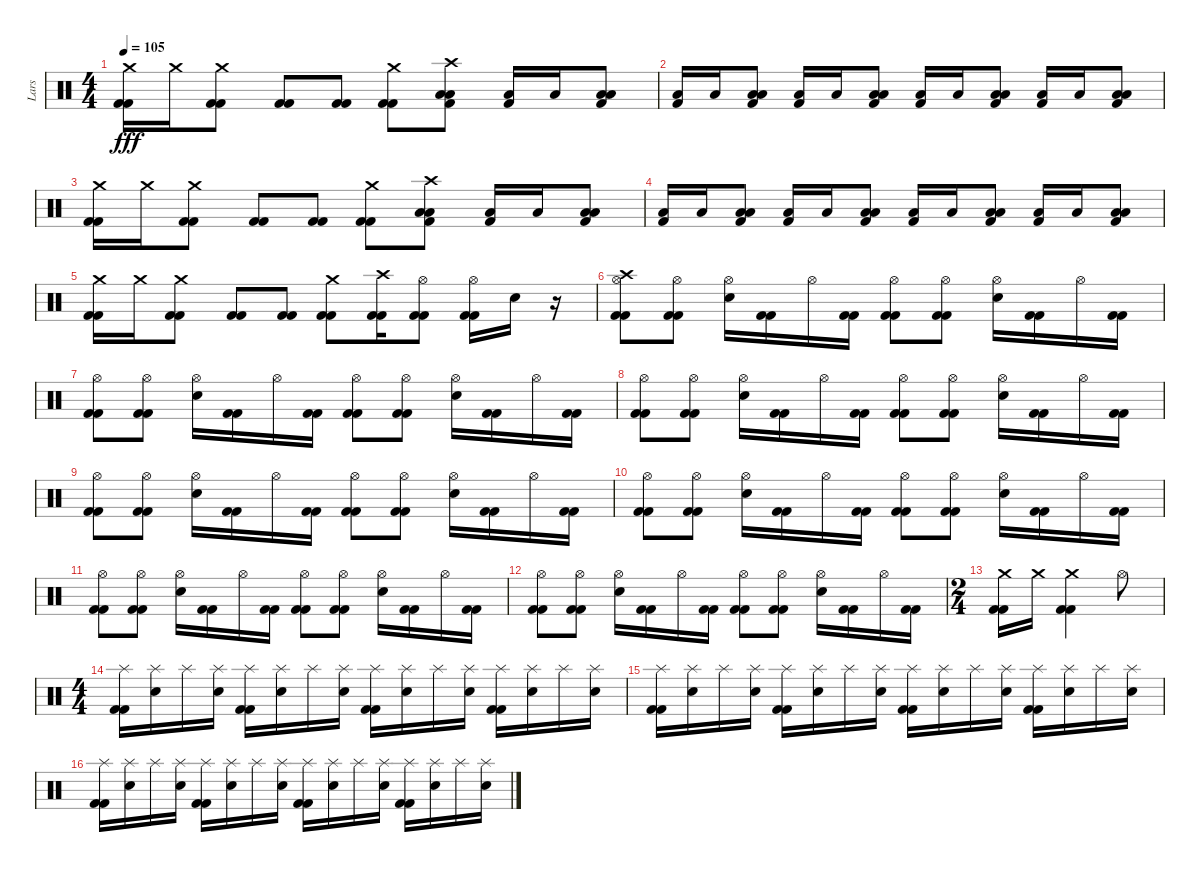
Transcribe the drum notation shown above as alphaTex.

\track ("Lars" "Lars") {instrument percussion}
\staff {score}
\articulation defaults
\ts (4 4)
\tempo 105
\clef neutral
\ks c
("Crash medium (hit)" "Kick (hit) 2" "Kick (hit) 2").16{dy fff} "Crash medium (hit)".16 ("Crash medium (hit)" "Kick (hit) 2" "Kick (hit) 2").8 ("Kick (hit) 2" "Kick (hit) 2").8 ("Kick (hit) 2" "Kick (hit) 2").8 ("Crash medium (hit)" "Kick (hit) 2" "Kick (hit) 2").8 ("Crash high (hit)" "Low Tom (hit)" "Low Floor Tom (hit)" "Kick (hit) 2").8 ("Low Floor Tom (hit)" "Kick (hit) 2").16 "Low Floor Tom (hit)".16 ("Low Tom (hit)" "Low Floor Tom (hit)" "Kick (hit) 2").8 |
("Low Floor Tom (hit)" "Kick (hit) 2").16 "Low Floor Tom (hit)".16 ("Low Tom (hit)" "Low Floor Tom (hit)" "Kick (hit) 2").8 ("Low Floor Tom (hit)" "Kick (hit) 2").16 "Low Floor Tom (hit)".16 ("Low Tom (hit)" "Low Floor Tom (hit)" "Kick (hit) 2").8 ("Low Floor Tom (hit)" "Kick (hit) 2").16 "Low Floor Tom (hit)".16 ("Low Tom (hit)" "Low Floor Tom (hit)" "Kick (hit) 2").8 ("Low Floor Tom (hit)" "Kick (hit) 2").16 "Low Floor Tom (hit)".16 ("Low Tom (hit)" "Low Floor Tom (hit)" "Kick (hit) 2").8 |
("Crash medium (hit)" "Kick (hit) 2" "Kick (hit) 2").16 "Crash medium (hit)".16 ("Crash medium (hit)" "Kick (hit) 2" "Kick (hit) 2").8 ("Kick (hit) 2" "Kick (hit) 2").8 ("Kick (hit) 2" "Kick (hit) 2").8 ("Crash medium (hit)" "Kick (hit) 2" "Kick (hit) 2").8 ("Crash high (hit)" "Low Tom (hit)" "Low Floor Tom (hit)" "Kick (hit) 2").8 ("Low Floor Tom (hit)" "Kick (hit) 2").16 "Low Floor Tom (hit)".16 ("Low Tom (hit)" "Low Floor Tom (hit)" "Kick (hit) 2").8 |
("Low Floor Tom (hit)" "Kick (hit) 2").16 "Low Floor Tom (hit)".16 ("Low Tom (hit)" "Low Floor Tom (hit)" "Kick (hit) 2").8 ("Low Floor Tom (hit)" "Kick (hit) 2").16 "Low Floor Tom (hit)".16 ("Low Tom (hit)" "Low Floor Tom (hit)" "Kick (hit) 2").8 ("Low Floor Tom (hit)" "Kick (hit) 2").16 "Low Floor Tom (hit)".16 ("Low Tom (hit)" "Low Floor Tom (hit)" "Kick (hit) 2").8 ("Low Floor Tom (hit)" "Kick (hit) 2").16 "Low Floor Tom (hit)".16 ("Low Tom (hit)" "Low Floor Tom (hit)" "Kick (hit) 2").8 |
("Crash medium (hit)" "Kick (hit) 2" "Kick (hit) 2").16 "Crash medium (hit)".16 ("Crash medium (hit)" "Kick (hit) 2" "Kick (hit) 2").8 ("Kick (hit) 2" "Kick (hit) 2").8 ("Kick (hit) 2" "Kick (hit) 2").8 ("Crash medium (hit)" "Kick (hit) 2" "Kick (hit) 2").8 ("Crash high (hit)" "Kick (hit) 2" "Kick (hit) 2").16 ("Hi-Hat (open)" "Kick (hit) 2" "Kick (hit) 2").8 ("Hi-Hat (open)" "Kick (hit) 2" "Kick (hit) 2").16 "Electric Snare (hit)".16 r.16 |
("Crash high (hit)" "Hi-Hat (open)" "Kick (hit) 2" "Kick (hit) 2").8 ("Hi-Hat (open)" "Kick (hit) 2" "Kick (hit) 2").8 ("Hi-Hat (open)" "Electric Snare (hit)").16 ("Kick (hit) 2" "Kick (hit) 2").16 "Hi-Hat (open)".16 ("Kick (hit) 2" "Kick (hit) 2").16 ("Hi-Hat (open)" "Kick (hit) 2" "Kick (hit) 2").8 ("Hi-Hat (open)" "Kick (hit) 2" "Kick (hit) 2").8 ("Hi-Hat (open)" "Electric Snare (hit)").16 ("Kick (hit) 2" "Kick (hit) 2").16 "Hi-Hat (open)".16 ("Kick (hit) 2" "Kick (hit) 2").16 |
("Hi-Hat (open)" "Kick (hit) 2" "Kick (hit) 2").8 ("Hi-Hat (open)" "Kick (hit) 2" "Kick (hit) 2").8 ("Hi-Hat (open)" "Electric Snare (hit)").16 ("Kick (hit) 2" "Kick (hit) 2").16 "Hi-Hat (open)".16 ("Kick (hit) 2" "Kick (hit) 2").16 ("Hi-Hat (open)" "Kick (hit) 2" "Kick (hit) 2").8 ("Hi-Hat (open)" "Kick (hit) 2" "Kick (hit) 2").8 ("Hi-Hat (open)" "Electric Snare (hit)").16 ("Kick (hit) 2" "Kick (hit) 2").16 "Hi-Hat (open)".16 ("Kick (hit) 2" "Kick (hit) 2").16 |
("Hi-Hat (open)" "Kick (hit) 2" "Kick (hit) 2").8 ("Hi-Hat (open)" "Kick (hit) 2" "Kick (hit) 2").8 ("Hi-Hat (open)" "Electric Snare (hit)").16 ("Kick (hit) 2" "Kick (hit) 2").16 "Hi-Hat (open)".16 ("Kick (hit) 2" "Kick (hit) 2").16 ("Hi-Hat (open)" "Kick (hit) 2" "Kick (hit) 2").8 ("Hi-Hat (open)" "Kick (hit) 2" "Kick (hit) 2").8 ("Hi-Hat (open)" "Electric Snare (hit)").16 ("Kick (hit) 2" "Kick (hit) 2").16 "Hi-Hat (open)".16 ("Kick (hit) 2" "Kick (hit) 2").16 |
("Hi-Hat (open)" "Kick (hit) 2" "Kick (hit) 2").8 ("Hi-Hat (open)" "Kick (hit) 2" "Kick (hit) 2").8 ("Hi-Hat (open)" "Electric Snare (hit)").16 ("Kick (hit) 2" "Kick (hit) 2").16 "Hi-Hat (open)".16 ("Kick (hit) 2" "Kick (hit) 2").16 ("Hi-Hat (open)" "Kick (hit) 2" "Kick (hit) 2").8 ("Hi-Hat (open)" "Kick (hit) 2" "Kick (hit) 2").8 ("Hi-Hat (open)" "Electric Snare (hit)").16 ("Kick (hit) 2" "Kick (hit) 2").16 "Hi-Hat (open)".16 ("Kick (hit) 2" "Kick (hit) 2").16 |
("Hi-Hat (open)" "Kick (hit) 2" "Kick (hit) 2").8 ("Hi-Hat (open)" "Kick (hit) 2" "Kick (hit) 2").8 ("Hi-Hat (open)" "Electric Snare (hit)").16 ("Kick (hit) 2" "Kick (hit) 2").16 "Hi-Hat (open)".16 ("Kick (hit) 2" "Kick (hit) 2").16 ("Hi-Hat (open)" "Kick (hit) 2" "Kick (hit) 2").8 ("Hi-Hat (open)" "Kick (hit) 2" "Kick (hit) 2").8 ("Hi-Hat (open)" "Electric Snare (hit)").16 ("Kick (hit) 2" "Kick (hit) 2").16 "Hi-Hat (open)".16 ("Kick (hit) 2" "Kick (hit) 2").16 |
("Hi-Hat (open)" "Kick (hit) 2" "Kick (hit) 2").8 ("Hi-Hat (open)" "Kick (hit) 2" "Kick (hit) 2").8 ("Hi-Hat (open)" "Electric Snare (hit)").16 ("Kick (hit) 2" "Kick (hit) 2").16 "Hi-Hat (open)".16 ("Kick (hit) 2" "Kick (hit) 2").16 ("Hi-Hat (open)" "Kick (hit) 2" "Kick (hit) 2").8 ("Hi-Hat (open)" "Kick (hit) 2" "Kick (hit) 2").8 ("Hi-Hat (open)" "Electric Snare (hit)").16 ("Kick (hit) 2" "Kick (hit) 2").16 "Hi-Hat (open)".16 ("Kick (hit) 2" "Kick (hit) 2").16 |
("Hi-Hat (open)" "Kick (hit) 2" "Kick (hit) 2").8 ("Hi-Hat (open)" "Kick (hit) 2" "Kick (hit) 2").8 ("Hi-Hat (open)" "Electric Snare (hit)").16 ("Kick (hit) 2" "Kick (hit) 2").16 "Hi-Hat (open)".16 ("Kick (hit) 2" "Kick (hit) 2").16 ("Hi-Hat (open)" "Kick (hit) 2" "Kick (hit) 2").8 ("Hi-Hat (open)" "Kick (hit) 2" "Kick (hit) 2").8 ("Hi-Hat (open)" "Electric Snare (hit)").16 ("Kick (hit) 2" "Kick (hit) 2").16 "Hi-Hat (open)".16 ("Kick (hit) 2" "Kick (hit) 2").16 |
\ts (2 4)
("Crash medium (hit)" "Kick (hit) 2" "Kick (hit) 2").16 "Crash medium (hit)".16 ("Crash medium (hit)" "Kick (hit) 2" "Kick (hit) 2").4 "Hi-Hat (open)".8 |
\ts (4 4)
("Splash (hit)" "Kick (hit) 2" "Kick (hit) 2").16 ("Splash (hit)" "Electric Snare (hit)").16 "Splash (hit)".16 ("Splash (hit)" "Electric Snare (hit)").16 ("Splash (hit)" "Kick (hit) 2" "Kick (hit) 2").16 ("Splash (hit)" "Electric Snare (hit)").16 "Splash (hit)".16 ("Splash (hit)" "Electric Snare (hit)").16 ("Splash (hit)" "Kick (hit) 2" "Kick (hit) 2").16 ("Splash (hit)" "Electric Snare (hit)").16 "Splash (hit)".16 ("Splash (hit)" "Electric Snare (hit)").16 ("Splash (hit)" "Kick (hit) 2" "Kick (hit) 2").16 ("Splash (hit)" "Electric Snare (hit)").16 "Splash (hit)".16 ("Splash (hit)" "Electric Snare (hit)").16 |
("Splash (hit)" "Kick (hit) 2" "Kick (hit) 2").16 ("Splash (hit)" "Electric Snare (hit)").16 "Splash (hit)".16 ("Splash (hit)" "Electric Snare (hit)").16 ("Splash (hit)" "Kick (hit) 2" "Kick (hit) 2").16 ("Splash (hit)" "Electric Snare (hit)").16 "Splash (hit)".16 ("Splash (hit)" "Electric Snare (hit)").16 ("Splash (hit)" "Kick (hit) 2" "Kick (hit) 2").16 ("Splash (hit)" "Electric Snare (hit)").16 "Splash (hit)".16 ("Splash (hit)" "Electric Snare (hit)").16 ("Splash (hit)" "Kick (hit) 2" "Kick (hit) 2").16 ("Splash (hit)" "Electric Snare (hit)").16 "Splash (hit)".16 ("Splash (hit)" "Electric Snare (hit)").16 |
("Splash (hit)" "Kick (hit) 2" "Kick (hit) 2").16 ("Splash (hit)" "Electric Snare (hit)").16 "Splash (hit)".16 ("Splash (hit)" "Electric Snare (hit)").16 ("Splash (hit)" "Kick (hit) 2" "Kick (hit) 2").16 ("Splash (hit)" "Electric Snare (hit)").16 "Splash (hit)".16 ("Splash (hit)" "Electric Snare (hit)").16 ("Splash (hit)" "Kick (hit) 2" "Kick (hit) 2").16 ("Splash (hit)" "Electric Snare (hit)").16 "Splash (hit)".16 ("Splash (hit)" "Electric Snare (hit)").16 ("Splash (hit)" "Kick (hit) 2" "Kick (hit) 2").16 ("Splash (hit)" "Electric Snare (hit)").16 "Splash (hit)".16 ("Splash (hit)" "Electric Snare (hit)").16
